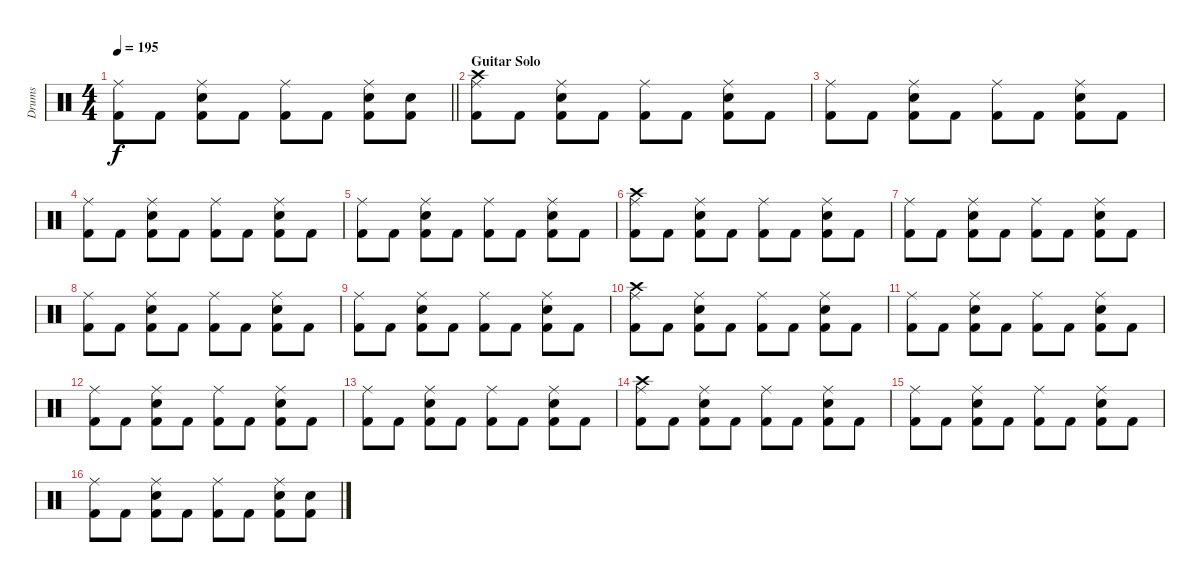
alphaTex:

\track ("Drums" "Drums") {instrument percussion}
\staff {score}
\articulation defaults
\ts (4 4)
\tempo 195
\clef neutral
\barLineRight lightlight
\ks c
("Ride (middle)" "Kick (hit) 2").8{dy f} "Kick (hit) 2".8 ("Ride (middle)" "Snare (hit) 2" "Kick (hit) 2").8 "Kick (hit) 2".8 ("Ride (middle)" "Kick (hit) 2").8 "Kick (hit) 2".8 ("Ride (middle)" "Snare (hit) 2" "Kick (hit) 2").8 ("Snare (hit) 2" "Kick (hit) 2").8 |
\section ("" "Guitar Solo")
("Crash high (hit)" "Ride (middle)" "Kick (hit) 2").8 "Kick (hit) 2".8 ("Ride (middle)" "Snare (hit) 2" "Kick (hit) 2").8 "Kick (hit) 2".8 ("Ride (middle)" "Kick (hit) 2").8 "Kick (hit) 2".8 ("Ride (middle)" "Snare (hit) 2" "Kick (hit) 2").8 "Kick (hit) 2".8 |
("Ride (middle)" "Kick (hit) 2").8 "Kick (hit) 2".8 ("Ride (middle)" "Snare (hit) 2" "Kick (hit) 2").8 "Kick (hit) 2".8 ("Ride (middle)" "Kick (hit) 2").8 "Kick (hit) 2".8 ("Ride (middle)" "Snare (hit) 2" "Kick (hit) 2").8 "Kick (hit) 2".8 |
("Ride (middle)" "Kick (hit) 2").8 "Kick (hit) 2".8 ("Ride (middle)" "Snare (hit) 2" "Kick (hit) 2").8 "Kick (hit) 2".8 ("Ride (middle)" "Kick (hit) 2").8 "Kick (hit) 2".8 ("Ride (middle)" "Snare (hit) 2" "Kick (hit) 2").8 "Kick (hit) 2".8 |
("Ride (middle)" "Kick (hit) 2").8 "Kick (hit) 2".8 ("Ride (middle)" "Snare (hit) 2" "Kick (hit) 2").8 "Kick (hit) 2".8 ("Ride (middle)" "Kick (hit) 2").8 "Kick (hit) 2".8 ("Ride (middle)" "Snare (hit) 2" "Kick (hit) 2").8 "Kick (hit) 2".8 |
("Crash high (hit)" "Ride (middle)" "Kick (hit) 2").8 "Kick (hit) 2".8 ("Ride (middle)" "Snare (hit) 2" "Kick (hit) 2").8 "Kick (hit) 2".8 ("Ride (middle)" "Kick (hit) 2").8 "Kick (hit) 2".8 ("Ride (middle)" "Snare (hit) 2" "Kick (hit) 2").8 "Kick (hit) 2".8 |
("Ride (middle)" "Kick (hit) 2").8 "Kick (hit) 2".8 ("Ride (middle)" "Snare (hit) 2" "Kick (hit) 2").8 "Kick (hit) 2".8 ("Ride (middle)" "Kick (hit) 2").8 "Kick (hit) 2".8 ("Ride (middle)" "Snare (hit) 2" "Kick (hit) 2").8 "Kick (hit) 2".8 |
("Ride (middle)" "Kick (hit) 2").8 "Kick (hit) 2".8 ("Ride (middle)" "Snare (hit) 2" "Kick (hit) 2").8 "Kick (hit) 2".8 ("Ride (middle)" "Kick (hit) 2").8 "Kick (hit) 2".8 ("Ride (middle)" "Snare (hit) 2" "Kick (hit) 2").8 "Kick (hit) 2".8 |
("Ride (middle)" "Kick (hit) 2").8 "Kick (hit) 2".8 ("Ride (middle)" "Snare (hit) 2" "Kick (hit) 2").8 "Kick (hit) 2".8 ("Ride (middle)" "Kick (hit) 2").8 "Kick (hit) 2".8 ("Ride (middle)" "Snare (hit) 2" "Kick (hit) 2").8 "Kick (hit) 2".8 |
("Crash high (hit)" "Ride (middle)" "Kick (hit) 2").8 "Kick (hit) 2".8 ("Ride (middle)" "Snare (hit) 2" "Kick (hit) 2").8 "Kick (hit) 2".8 ("Ride (middle)" "Kick (hit) 2").8 "Kick (hit) 2".8 ("Ride (middle)" "Snare (hit) 2" "Kick (hit) 2").8 "Kick (hit) 2".8 |
("Ride (middle)" "Kick (hit) 2").8 "Kick (hit) 2".8 ("Ride (middle)" "Snare (hit) 2" "Kick (hit) 2").8 "Kick (hit) 2".8 ("Ride (middle)" "Kick (hit) 2").8 "Kick (hit) 2".8 ("Ride (middle)" "Snare (hit) 2" "Kick (hit) 2").8 "Kick (hit) 2".8 |
("Ride (middle)" "Kick (hit) 2").8 "Kick (hit) 2".8 ("Ride (middle)" "Snare (hit) 2" "Kick (hit) 2").8 "Kick (hit) 2".8 ("Ride (middle)" "Kick (hit) 2").8 "Kick (hit) 2".8 ("Ride (middle)" "Snare (hit) 2" "Kick (hit) 2").8 "Kick (hit) 2".8 |
("Ride (middle)" "Kick (hit) 2").8 "Kick (hit) 2".8 ("Ride (middle)" "Snare (hit) 2" "Kick (hit) 2").8 "Kick (hit) 2".8 ("Ride (middle)" "Kick (hit) 2").8 "Kick (hit) 2".8 ("Ride (middle)" "Snare (hit) 2" "Kick (hit) 2").8 "Kick (hit) 2".8 |
("Crash high (hit)" "Ride (middle)" "Kick (hit) 2").8 "Kick (hit) 2".8 ("Ride (middle)" "Snare (hit) 2" "Kick (hit) 2").8 "Kick (hit) 2".8 ("Ride (middle)" "Kick (hit) 2").8 "Kick (hit) 2".8 ("Ride (middle)" "Snare (hit) 2" "Kick (hit) 2").8 "Kick (hit) 2".8 |
("Ride (middle)" "Kick (hit) 2").8 "Kick (hit) 2".8 ("Ride (middle)" "Snare (hit) 2" "Kick (hit) 2").8 "Kick (hit) 2".8 ("Ride (middle)" "Kick (hit) 2").8 "Kick (hit) 2".8 ("Ride (middle)" "Snare (hit) 2" "Kick (hit) 2").8 "Kick (hit) 2".8 |
("Ride (middle)" "Kick (hit) 2").8 "Kick (hit) 2".8 ("Ride (middle)" "Snare (hit) 2" "Kick (hit) 2").8 "Kick (hit) 2".8 ("Ride (middle)" "Kick (hit) 2").8 "Kick (hit) 2".8 ("Ride (middle)" "Snare (hit) 2" "Kick (hit) 2").8 ("Snare (hit) 2" "Kick (hit) 2").8
